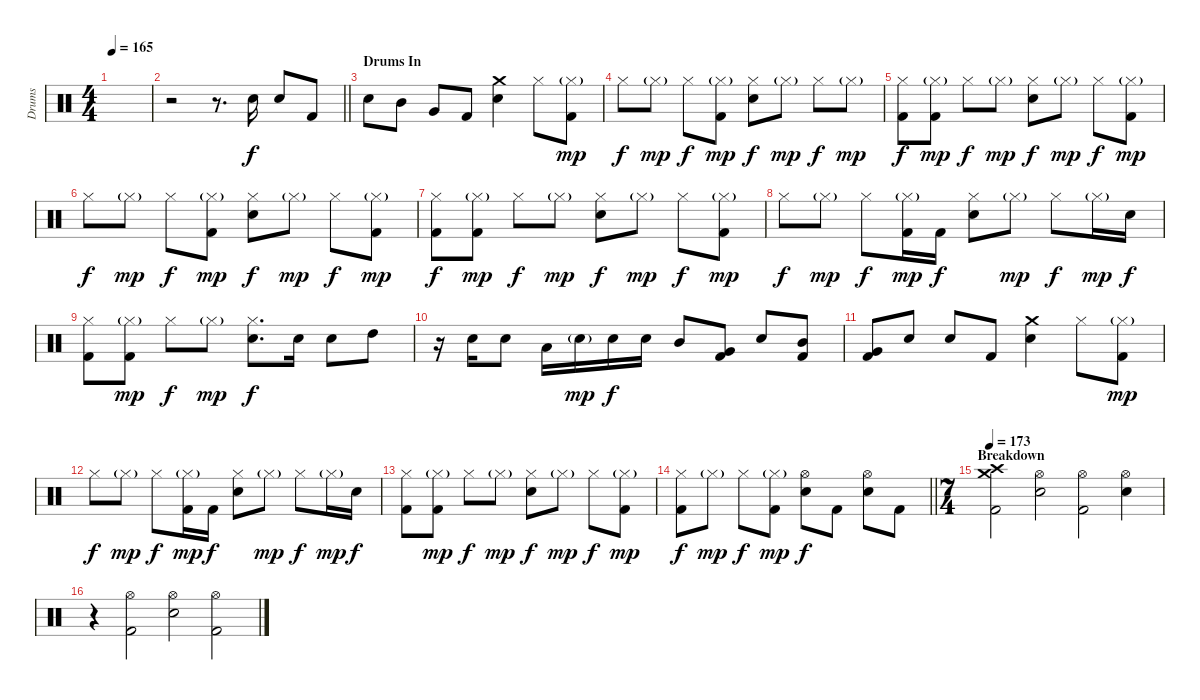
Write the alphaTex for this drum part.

\track ("Drums" "Drums") {instrument percussion}
\staff {score}
\articulation defaults
\ts (4 4)
\tempo 165
\clef neutral
\ks c
|
\barLineRight lightlight
r.2 r.8{d} "Electric Snare (hit)".16 "Electric Snare (hit)".8 "Kick (hit) 2".8 |
\section ("" "Drums In")
"Electric Snare (hit)".8 "Mid Tom (hit)".8 "Very Low Tom (hit)".8 "Kick (hit) 2".8 ("Crash medium (hit)" "Electric Snare (hit)").4 "Hi-Hat (closed)".8 ("Hi-Hat (closed)"{g} "Kick (hit) 2").8{dy mp} |
"Hi-Hat (closed)".8{dy f} "Hi-Hat (closed)"{g}.8{dy mp} "Hi-Hat (closed)".8{dy f} ("Hi-Hat (closed)"{g} "Kick (hit) 2").8{dy mp} ("Hi-Hat (closed)" "Electric Snare (hit)").8{dy f} "Hi-Hat (closed)"{g}.8{dy mp} "Hi-Hat (closed)".8{dy f} "Hi-Hat (closed)"{g}.8{dy mp} |
("Hi-Hat (closed)" "Kick (hit) 2").8{dy f} ("Hi-Hat (closed)"{g} "Kick (hit) 2").8{dy mp} "Hi-Hat (closed)".8{dy f} "Hi-Hat (closed)"{g}.8{dy mp} ("Hi-Hat (closed)" "Electric Snare (hit)").8{dy f} "Hi-Hat (closed)"{g}.8{dy mp} "Hi-Hat (closed)".8{dy f} ("Hi-Hat (closed)"{g} "Kick (hit) 2").8{dy mp} |
"Hi-Hat (closed)".8{dy f} "Hi-Hat (closed)"{g}.8{dy mp} "Hi-Hat (closed)".8{dy f} ("Hi-Hat (closed)"{g} "Kick (hit) 2").8{dy mp} ("Hi-Hat (closed)" "Electric Snare (hit)").8{dy f} "Hi-Hat (closed)"{g}.8{dy mp} "Hi-Hat (closed)".8{dy f} ("Hi-Hat (closed)"{g} "Kick (hit) 2").8{dy mp} |
("Hi-Hat (closed)" "Kick (hit) 2").8{dy f} ("Hi-Hat (closed)"{g} "Kick (hit) 2").8{dy mp} "Hi-Hat (closed)".8{dy f} "Hi-Hat (closed)"{g}.8{dy mp} ("Hi-Hat (closed)" "Electric Snare (hit)").8{dy f} "Hi-Hat (closed)"{g}.8{dy mp} "Hi-Hat (closed)".8{dy f} ("Hi-Hat (closed)"{g} "Kick (hit) 2").8{dy mp} |
"Hi-Hat (closed)".8{dy f} "Hi-Hat (closed)"{g}.8{dy mp} "Hi-Hat (closed)".8{dy f} ("Hi-Hat (closed)"{g} "Kick (hit) 2").16{dy mp} "Kick (hit) 2".16{dy f} ("Hi-Hat (closed)" "Electric Snare (hit)").8 "Hi-Hat (closed)"{g}.8{dy mp} "Hi-Hat (closed)".8{dy f} "Hi-Hat (closed)"{g}.16{dy mp} "Electric Snare (hit)".16{dy f} |
("Hi-Hat (closed)" "Kick (hit) 2").8 ("Hi-Hat (closed)"{g} "Kick (hit) 2").8{dy mp} "Hi-Hat (closed)".8{dy f} "Hi-Hat (closed)"{g}.8{dy mp} ("Hi-Hat (closed)" "Electric Snare (hit)").8{d dy f} "Electric Snare (hit)".16 "Electric Snare (hit)".8 "High Tom (hit)".8 |
r.16 "Electric Snare (hit)".16 "Electric Snare (hit)".8 "Low Tom (hit)".16 "Electric Snare (hit)"{g}.16{dy mp} "Electric Snare (hit)".16{dy f} "Electric Snare (hit)".16 "Mid Tom (hit)".8 ("Very Low Tom (hit)" "Kick (hit) 2").8 "Electric Snare (hit)".8 ("Mid Tom (hit)" "Kick (hit) 2").8 |
("Very Low Tom (hit)" "Kick (hit) 2").8 "Electric Snare (hit)".8 "Electric Snare (hit)".8 "Kick (hit) 2".8 ("Crash medium (hit)" "Electric Snare (hit)").4 "Hi-Hat (closed)".8 ("Hi-Hat (closed)"{g} "Kick (hit) 2").8{dy mp} |
"Hi-Hat (closed)".8{dy f} "Hi-Hat (closed)"{g}.8{dy mp} "Hi-Hat (closed)".8{dy f} ("Hi-Hat (closed)"{g} "Kick (hit) 2").16{dy mp} "Kick (hit) 2".16{dy f} ("Hi-Hat (closed)" "Electric Snare (hit)").8 "Hi-Hat (closed)"{g}.8{dy mp} "Hi-Hat (closed)".8{dy f} "Hi-Hat (closed)"{g}.16{dy mp} "Electric Snare (hit)".16{dy f} |
("Hi-Hat (closed)" "Kick (hit) 2").8 ("Hi-Hat (closed)"{g} "Kick (hit) 2").8{dy mp} "Hi-Hat (closed)".8{dy f} "Hi-Hat (closed)"{g}.8{dy mp} ("Hi-Hat (closed)" "Electric Snare (hit)").8{dy f} "Hi-Hat (closed)"{g}.8{dy mp} "Hi-Hat (closed)".8{dy f} ("Hi-Hat (closed)"{g} "Kick (hit) 2").8{dy mp} |
\barLineRight lightlight
("Hi-Hat (closed)" "Kick (hit) 2").8{dy f} "Hi-Hat (closed)"{g}.8{dy mp} "Hi-Hat (closed)".8{dy f} ("Hi-Hat (closed)"{g} "Kick (hit) 2").8{dy mp} ("Hi-Hat (open)" "Electric Snare (hit)").8{dy f} "Kick (hit) 2".8 ("Hi-Hat (open)" "Electric Snare (hit)").8 "Kick (hit) 2".8 |
\ts (7 4)
\section ("" "Breakdown")
\tempo 173
("Crash high (hit)" "Crash medium (hit)" "Kick (hit) 2").2 ("Hi-Hat (open)" "Electric Snare (hit)").2 ("Hi-Hat (open)" "Kick (hit) 2").2 ("Hi-Hat (open)" "Electric Snare (hit)").4 |
r.4 ("Hi-Hat (open)" "Kick (hit) 2").2 ("Hi-Hat (open)" "Electric Snare (hit)").2 ("Hi-Hat (open)" "Kick (hit) 2").2
